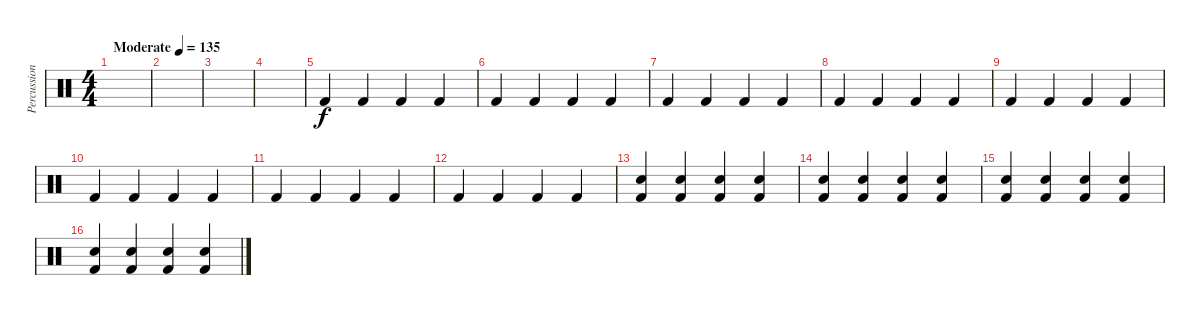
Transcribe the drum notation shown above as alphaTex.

\track ("Percussion" "Percussion") {instrument percussion}
\staff {score}
\articulation defaults
\ts (4 4)
\tempo (135 "Moderate")
\clef neutral
\ks c
|
|
|
|
"Kick (hit) 2".4 "Kick (hit) 2".4 "Kick (hit) 2".4 "Kick (hit) 2".4 |
"Kick (hit) 2".4 "Kick (hit) 2".4 "Kick (hit) 2".4 "Kick (hit) 2".4 |
"Kick (hit) 2".4 "Kick (hit) 2".4 "Kick (hit) 2".4 "Kick (hit) 2".4 |
"Kick (hit) 2".4 "Kick (hit) 2".4 "Kick (hit) 2".4 "Kick (hit) 2".4 |
"Kick (hit) 2".4 "Kick (hit) 2".4 "Kick (hit) 2".4 "Kick (hit) 2".4 |
"Kick (hit) 2".4 "Kick (hit) 2".4 "Kick (hit) 2".4 "Kick (hit) 2".4 |
"Kick (hit) 2".4 "Kick (hit) 2".4 "Kick (hit) 2".4 "Kick (hit) 2".4 |
"Kick (hit) 2".4 "Kick (hit) 2".4 "Kick (hit) 2".4 "Kick (hit) 2".4 |
("Hand Clap (hit)" "Kick (hit) 2").4 ("Hand Clap (hit)" "Kick (hit) 2").4 ("Hand Clap (hit)" "Kick (hit) 2").4 ("Hand Clap (hit)" "Kick (hit) 2").4 |
("Hand Clap (hit)" "Kick (hit) 2").4 ("Hand Clap (hit)" "Kick (hit) 2").4 ("Hand Clap (hit)" "Kick (hit) 2").4 ("Hand Clap (hit)" "Kick (hit) 2").4 |
("Hand Clap (hit)" "Kick (hit) 2").4 ("Hand Clap (hit)" "Kick (hit) 2").4 ("Hand Clap (hit)" "Kick (hit) 2").4 ("Hand Clap (hit)" "Kick (hit) 2").4 |
("Hand Clap (hit)" "Kick (hit) 2").4 ("Hand Clap (hit)" "Kick (hit) 2").4 ("Hand Clap (hit)" "Kick (hit) 2").4 ("Hand Clap (hit)" "Kick (hit) 2").4
